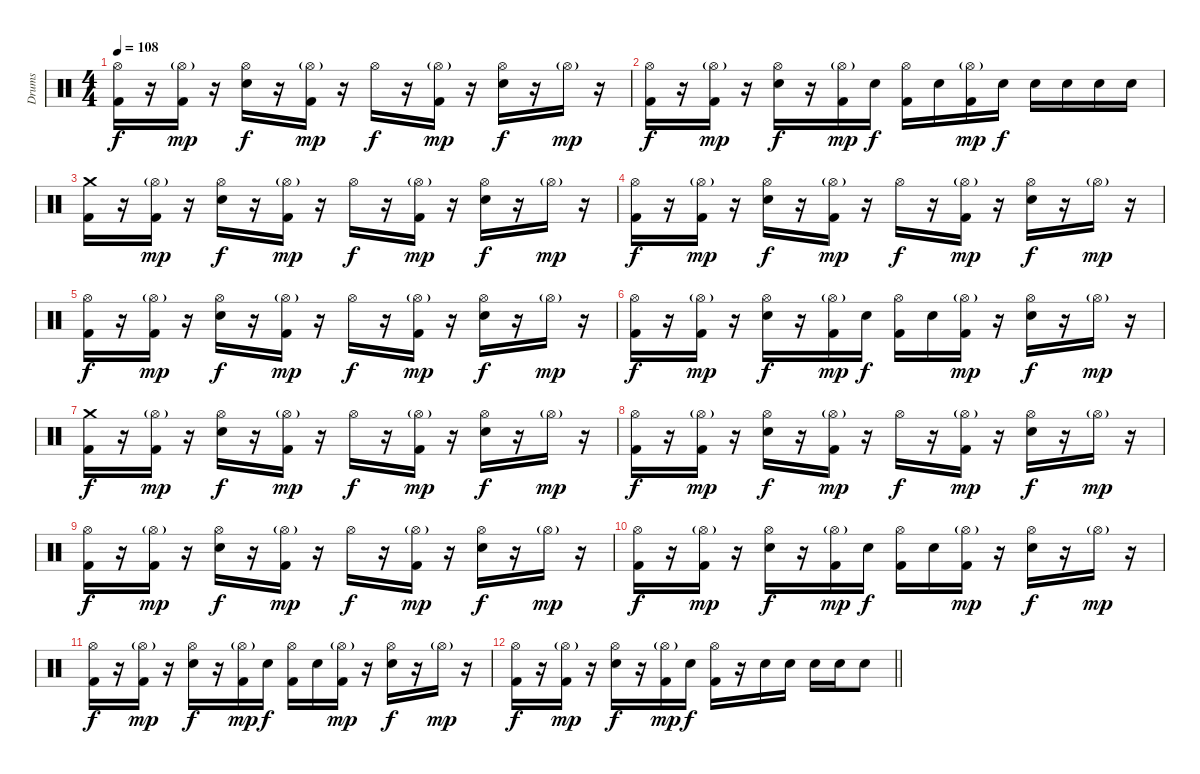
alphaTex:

\track ("Drums" "Drums") {instrument percussion}
\staff {score}
\articulation defaults
\ts (4 4)
\tempo 108
\clef neutral
\ks c
("Hi-Hat (open)" "Kick (hit) 2").16{dy f} r.16 ("Hi-Hat (open)"{g} "Kick (hit) 2").16{dy mp} r.16 ("Hi-Hat (open)" "Electric Snare (hit)").16{dy f} r.16 ("Hi-Hat (open)"{g} "Kick (hit) 2").16{dy mp} r.16 "Hi-Hat (open)".16{dy f} r.16 ("Hi-Hat (open)"{g} "Kick (hit) 2").16{dy mp} r.16 ("Hi-Hat (open)" "Electric Snare (hit)").16{dy f} r.16 "Hi-Hat (open)"{g}.16{dy mp} r.16 |
("Hi-Hat (open)" "Kick (hit) 2").16{dy f} r.16 ("Hi-Hat (open)"{g} "Kick (hit) 2").16{dy mp} r.16 ("Hi-Hat (open)" "Electric Snare (hit)").16{dy f} r.16 ("Hi-Hat (open)"{g} "Kick (hit) 2").16{dy mp} "Electric Snare (hit)".16{dy f} ("Hi-Hat (open)" "Kick (hit) 2").16 "Electric Snare (hit)".16 ("Hi-Hat (open)"{g} "Kick (hit) 2").16{dy mp} "Electric Snare (hit)".16{dy f} "Electric Snare (hit)".16 "Electric Snare (hit)".16 "Electric Snare (hit)".16 "Electric Snare (hit)".16 |
("Crash medium (hit)" "Kick (hit) 2").16 r.16 ("Hi-Hat (open)"{g} "Kick (hit) 2").16{dy mp} r.16 ("Hi-Hat (open)" "Electric Snare (hit)").16{dy f} r.16 ("Hi-Hat (open)"{g} "Kick (hit) 2").16{dy mp} r.16 "Hi-Hat (open)".16{dy f} r.16 ("Hi-Hat (open)"{g} "Kick (hit) 2").16{dy mp} r.16 ("Hi-Hat (open)" "Electric Snare (hit)").16{dy f} r.16 "Hi-Hat (open)"{g}.16{dy mp} r.16 |
("Hi-Hat (open)" "Kick (hit) 2").16{dy f} r.16 ("Hi-Hat (open)"{g} "Kick (hit) 2").16{dy mp} r.16 ("Hi-Hat (open)" "Electric Snare (hit)").16{dy f} r.16 ("Hi-Hat (open)"{g} "Kick (hit) 2").16{dy mp} r.16 "Hi-Hat (open)".16{dy f} r.16 ("Hi-Hat (open)"{g} "Kick (hit) 2").16{dy mp} r.16 ("Hi-Hat (open)" "Electric Snare (hit)").16{dy f} r.16 "Hi-Hat (open)"{g}.16{dy mp} r.16 |
("Hi-Hat (open)" "Kick (hit) 2").16{dy f} r.16 ("Hi-Hat (open)"{g} "Kick (hit) 2").16{dy mp} r.16 ("Hi-Hat (open)" "Electric Snare (hit)").16{dy f} r.16 ("Hi-Hat (open)"{g} "Kick (hit) 2").16{dy mp} r.16 "Hi-Hat (open)".16{dy f} r.16 ("Hi-Hat (open)"{g} "Kick (hit) 2").16{dy mp} r.16 ("Hi-Hat (open)" "Electric Snare (hit)").16{dy f} r.16 "Hi-Hat (open)"{g}.16{dy mp} r.16 |
("Hi-Hat (open)" "Kick (hit) 2").16{dy f} r.16 ("Hi-Hat (open)"{g} "Kick (hit) 2").16{dy mp} r.16 ("Hi-Hat (open)" "Electric Snare (hit)").16{dy f} r.16 ("Hi-Hat (open)"{g} "Kick (hit) 2").16{dy mp} "Electric Snare (hit)".16{dy f} ("Hi-Hat (open)" "Kick (hit) 2").16 "Electric Snare (hit)".16 ("Hi-Hat (open)"{g} "Kick (hit) 2").16{dy mp} r.16 ("Hi-Hat (open)" "Electric Snare (hit)").16{dy f} r.16 "Hi-Hat (open)"{g}.16{dy mp} r.16 |
("Crash medium (hit)" "Kick (hit) 2").16{dy f} r.16 ("Hi-Hat (open)"{g} "Kick (hit) 2").16{dy mp} r.16 ("Hi-Hat (open)" "Electric Snare (hit)").16{dy f} r.16 ("Hi-Hat (open)"{g} "Kick (hit) 2").16{dy mp} r.16 "Hi-Hat (open)".16{dy f} r.16 ("Hi-Hat (open)"{g} "Kick (hit) 2").16{dy mp} r.16 ("Hi-Hat (open)" "Electric Snare (hit)").16{dy f} r.16 "Hi-Hat (open)"{g}.16{dy mp} r.16 |
("Hi-Hat (open)" "Kick (hit) 2").16{dy f} r.16 ("Hi-Hat (open)"{g} "Kick (hit) 2").16{dy mp} r.16 ("Hi-Hat (open)" "Electric Snare (hit)").16{dy f} r.16 ("Hi-Hat (open)"{g} "Kick (hit) 2").16{dy mp} r.16 "Hi-Hat (open)".16{dy f} r.16 ("Hi-Hat (open)"{g} "Kick (hit) 2").16{dy mp} r.16 ("Hi-Hat (open)" "Electric Snare (hit)").16{dy f} r.16 "Hi-Hat (open)"{g}.16{dy mp} r.16 |
("Hi-Hat (open)" "Kick (hit) 2").16{dy f} r.16 ("Hi-Hat (open)"{g} "Kick (hit) 2").16{dy mp} r.16 ("Hi-Hat (open)" "Electric Snare (hit)").16{dy f} r.16 ("Hi-Hat (open)"{g} "Kick (hit) 2").16{dy mp} r.16 "Hi-Hat (open)".16{dy f} r.16 ("Hi-Hat (open)"{g} "Kick (hit) 2").16{dy mp} r.16 ("Hi-Hat (open)" "Electric Snare (hit)").16{dy f} r.16 "Hi-Hat (open)"{g}.16{dy mp} r.16 |
("Hi-Hat (open)" "Kick (hit) 2").16{dy f} r.16 ("Hi-Hat (open)"{g} "Kick (hit) 2").16{dy mp} r.16 ("Hi-Hat (open)" "Electric Snare (hit)").16{dy f} r.16 ("Hi-Hat (open)"{g} "Kick (hit) 2").16{dy mp} "Electric Snare (hit)".16{dy f} ("Hi-Hat (open)" "Kick (hit) 2").16 "Electric Snare (hit)".16 ("Hi-Hat (open)"{g} "Kick (hit) 2").16{dy mp} r.16 ("Hi-Hat (open)" "Electric Snare (hit)").16{dy f} r.16 "Hi-Hat (open)"{g}.16{dy mp} r.16 |
("Hi-Hat (open)" "Kick (hit) 2").16{dy f} r.16 ("Hi-Hat (open)"{g} "Kick (hit) 2").16{dy mp} r.16 ("Hi-Hat (open)" "Electric Snare (hit)").16{dy f} r.16 ("Hi-Hat (open)"{g} "Kick (hit) 2").16{dy mp} "Electric Snare (hit)".16{dy f} ("Hi-Hat (open)" "Kick (hit) 2").16 "Electric Snare (hit)".16 ("Hi-Hat (open)"{g} "Kick (hit) 2").16{dy mp} r.16 ("Hi-Hat (open)" "Electric Snare (hit)").16{dy f} r.16 "Hi-Hat (open)"{g}.16{dy mp} r.16 |
\barLineRight lightlight
("Hi-Hat (open)" "Kick (hit) 2").16{dy f} r.16 ("Hi-Hat (open)"{g} "Kick (hit) 2").16{dy mp} r.16 ("Hi-Hat (open)" "Electric Snare (hit)").16{dy f} r.16 ("Hi-Hat (open)"{g} "Kick (hit) 2").16{dy mp} "Electric Snare (hit)".16{dy f} ("Hi-Hat (open)" "Kick (hit) 2").16 r.16 "Electric Snare (hit)".16 "Electric Snare (hit)".16 "Electric Snare (hit)".16 "Electric Snare (hit)".16 "Electric Snare (hit)".8
